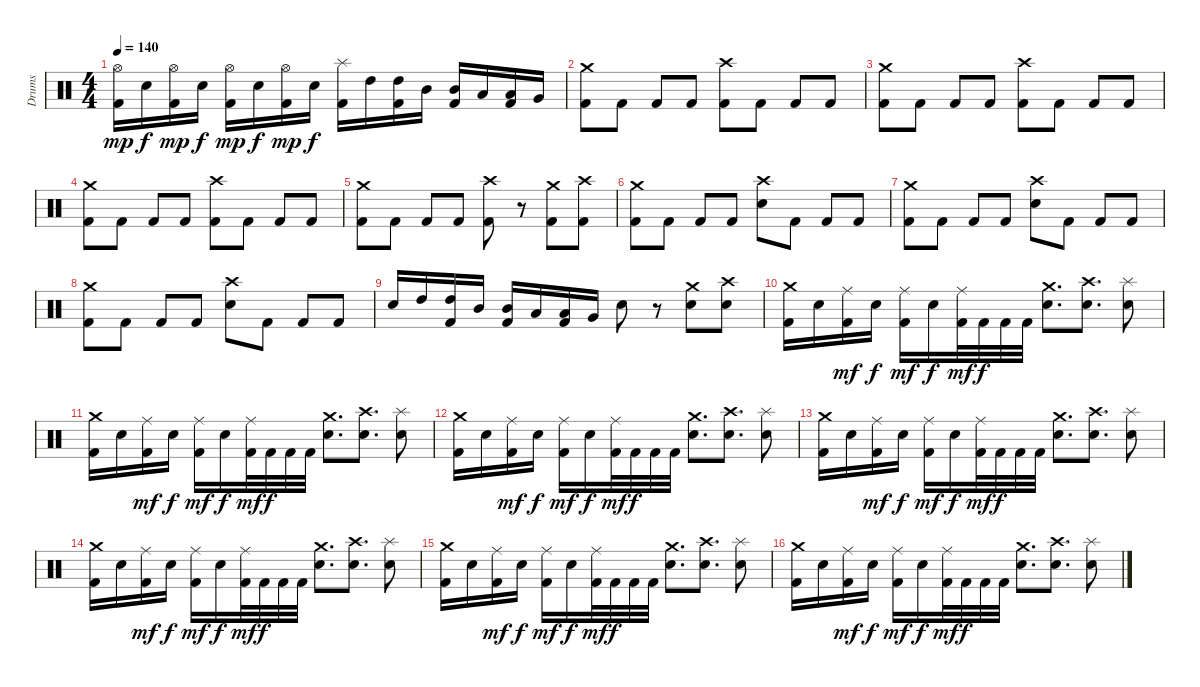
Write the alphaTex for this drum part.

\track ("Drums" "Drums") {instrument percussion}
\staff {score}
\articulation defaults
\ts (4 4)
\tempo 140
\clef neutral
\ks c
("Hi-Hat (open)" "Kick (hit) 2").16{dy mp} "Snare (hit) 2".16{dy f} ("Hi-Hat (open)" "Kick (hit) 2").16{dy mp} "Snare (hit) 2".16{dy f} ("Hi-Hat (open)" "Kick (hit) 2").16{dy mp} "Snare (hit) 2".16{dy f} ("Hi-Hat (open)" "Kick (hit) 2").16{dy mp} "Snare (hit) 2".16{dy f} ("Splash (hit)" "Kick (hit) 2").16 "High Tom (hit)".16 ("High Tom (hit)" "Kick (hit) 2").16 "Mid Tom (hit)".16 ("Mid Tom (hit)" "Kick (hit) 2").16 "Low Tom (hit)".16 ("Low Tom (hit)" "Kick (hit) 2").16 "Very Low Tom (hit)".16 |
("Crash medium (hit)" "Kick (hit) 2").8 "Kick (hit) 2".8 "Kick (hit) 2".8 "Kick (hit) 2".8 ("Crash high (hit)" "Kick (hit) 2").8 "Kick (hit) 2".8 "Kick (hit) 2".8 "Kick (hit) 2".8 |
("Crash medium (hit)" "Kick (hit) 2").8 "Kick (hit) 2".8 "Kick (hit) 2".8 "Kick (hit) 2".8 ("Crash high (hit)" "Kick (hit) 2").8 "Kick (hit) 2".8 "Kick (hit) 2".8 "Kick (hit) 2".8 |
("Crash medium (hit)" "Kick (hit) 2").8 "Kick (hit) 2".8 "Kick (hit) 2".8 "Kick (hit) 2".8 ("Crash high (hit)" "Kick (hit) 2").8 "Kick (hit) 2".8 "Kick (hit) 2".8 "Kick (hit) 2".8 |
("Crash medium (hit)" "Kick (hit) 2").8 "Kick (hit) 2".8 "Kick (hit) 2".8 "Kick (hit) 2".8 ("Crash high (hit)" "Kick (hit) 2").8 r.8 ("Crash medium (hit)" "Kick (hit) 2").8 ("Crash high (hit)" "Kick (hit) 2").8 |
("Crash medium (hit)" "Kick (hit) 2").8 "Kick (hit) 2".8 "Kick (hit) 2".8 "Kick (hit) 2".8 ("Crash high (hit)" "Snare (hit) 2").8 "Kick (hit) 2".8 "Kick (hit) 2".8 "Kick (hit) 2".8 |
("Crash medium (hit)" "Kick (hit) 2").8 "Kick (hit) 2".8 "Kick (hit) 2".8 "Kick (hit) 2".8 ("Crash high (hit)" "Snare (hit) 2").8 "Kick (hit) 2".8 "Kick (hit) 2".8 "Kick (hit) 2".8 |
("Crash medium (hit)" "Kick (hit) 2").8 "Kick (hit) 2".8 "Kick (hit) 2".8 "Kick (hit) 2".8 ("Crash high (hit)" "Snare (hit) 2").8 "Kick (hit) 2".8 "Kick (hit) 2".8 "Kick (hit) 2".8 |
"Snare (hit) 2".16 "High Tom (hit)".16 ("High Tom (hit)" "Kick (hit) 2").16 "Mid Tom (hit)".16 ("Mid Tom (hit)" "Kick (hit) 2").16 "Low Tom (hit)".16 ("Low Tom (hit)" "Kick (hit) 2").16 "Very Low Tom (hit)".16 "Snare (hit) 2".8 r.8 ("Crash medium (hit)" "Snare (hit) 2").8 ("Crash high (hit)" "Snare (hit) 2").8 |
("Crash medium (hit)" "Kick (hit) 2").16 "Snare (hit) 2".16 ("Ride (middle)" "Kick (hit) 2").16{dy mf} "Snare (hit) 2".16{dy f} ("Ride (middle)" "Kick (hit) 2").16{dy mf} "Snare (hit) 2".16{dy f} ("Ride (middle)" "Kick (hit) 2").32{dy mf} "Kick (hit) 2".32{dy f} "Kick (hit) 2".32 "Kick (hit) 2".32 ("Crash medium (hit)" "Snare (hit) 2").8{d} ("Crash high (hit)" "Snare (hit) 2").8{d} ("Splash (hit)" "Snare (hit) 2").8 |
("Crash medium (hit)" "Kick (hit) 2").16 "Snare (hit) 2".16 ("Ride (middle)" "Kick (hit) 2").16{dy mf} "Snare (hit) 2".16{dy f} ("Ride (middle)" "Kick (hit) 2").16{dy mf} "Snare (hit) 2".16{dy f} ("Ride (middle)" "Kick (hit) 2").32{dy mf} "Kick (hit) 2".32{dy f} "Kick (hit) 2".32 "Kick (hit) 2".32 ("Crash medium (hit)" "Snare (hit) 2").8{d} ("Crash high (hit)" "Snare (hit) 2").8{d} ("Splash (hit)" "Snare (hit) 2").8 |
("Crash medium (hit)" "Kick (hit) 2").16 "Snare (hit) 2".16 ("Ride (middle)" "Kick (hit) 2").16{dy mf} "Snare (hit) 2".16{dy f} ("Ride (middle)" "Kick (hit) 2").16{dy mf} "Snare (hit) 2".16{dy f} ("Ride (middle)" "Kick (hit) 2").32{dy mf} "Kick (hit) 2".32{dy f} "Kick (hit) 2".32 "Kick (hit) 2".32 ("Crash medium (hit)" "Snare (hit) 2").8{d} ("Crash high (hit)" "Snare (hit) 2").8{d} ("Splash (hit)" "Snare (hit) 2").8 |
("Crash medium (hit)" "Kick (hit) 2").16 "Snare (hit) 2".16 ("Ride (middle)" "Kick (hit) 2").16{dy mf} "Snare (hit) 2".16{dy f} ("Ride (middle)" "Kick (hit) 2").16{dy mf} "Snare (hit) 2".16{dy f} ("Ride (middle)" "Kick (hit) 2").32{dy mf} "Kick (hit) 2".32{dy f} "Kick (hit) 2".32 "Kick (hit) 2".32 ("Crash medium (hit)" "Snare (hit) 2").8{d} ("Crash high (hit)" "Snare (hit) 2").8{d} ("Splash (hit)" "Snare (hit) 2").8 |
("Crash medium (hit)" "Kick (hit) 2").16 "Snare (hit) 2".16 ("Ride (middle)" "Kick (hit) 2").16{dy mf} "Snare (hit) 2".16{dy f} ("Ride (middle)" "Kick (hit) 2").16{dy mf} "Snare (hit) 2".16{dy f} ("Ride (middle)" "Kick (hit) 2").32{dy mf} "Kick (hit) 2".32{dy f} "Kick (hit) 2".32 "Kick (hit) 2".32 ("Crash medium (hit)" "Snare (hit) 2").8{d} ("Crash high (hit)" "Snare (hit) 2").8{d} ("Splash (hit)" "Snare (hit) 2").8 |
("Crash medium (hit)" "Kick (hit) 2").16 "Snare (hit) 2".16 ("Ride (middle)" "Kick (hit) 2").16{dy mf} "Snare (hit) 2".16{dy f} ("Ride (middle)" "Kick (hit) 2").16{dy mf} "Snare (hit) 2".16{dy f} ("Ride (middle)" "Kick (hit) 2").32{dy mf} "Kick (hit) 2".32{dy f} "Kick (hit) 2".32 "Kick (hit) 2".32 ("Crash medium (hit)" "Snare (hit) 2").8{d} ("Crash high (hit)" "Snare (hit) 2").8{d} ("Splash (hit)" "Snare (hit) 2").8 |
("Crash medium (hit)" "Kick (hit) 2").16 "Snare (hit) 2".16 ("Ride (middle)" "Kick (hit) 2").16{dy mf} "Snare (hit) 2".16{dy f} ("Ride (middle)" "Kick (hit) 2").16{dy mf} "Snare (hit) 2".16{dy f} ("Ride (middle)" "Kick (hit) 2").32{dy mf} "Kick (hit) 2".32{dy f} "Kick (hit) 2".32 "Kick (hit) 2".32 ("Crash medium (hit)" "Snare (hit) 2").8{d} ("Crash high (hit)" "Snare (hit) 2").8{d} ("Splash (hit)" "Snare (hit) 2").8
